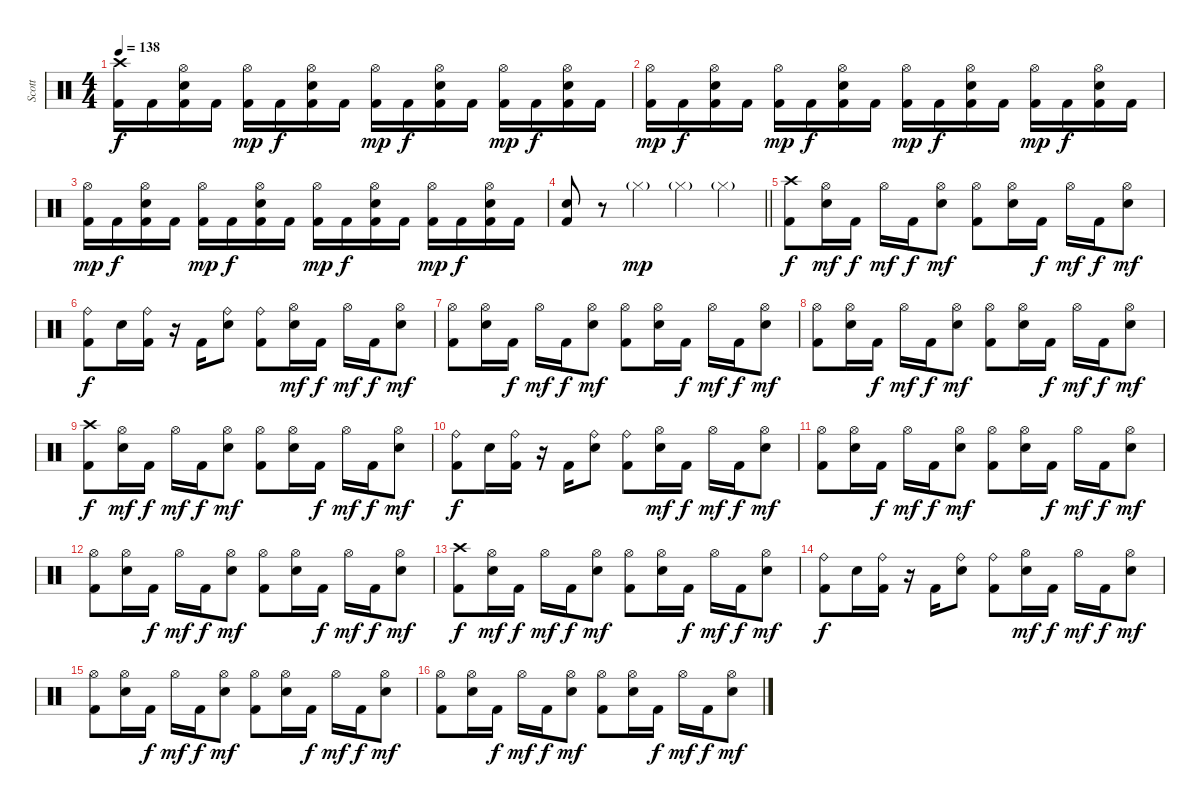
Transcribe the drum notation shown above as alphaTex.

\track ("Scott" "Scott") {instrument percussion}
\staff {score}
\articulation defaults
\ts (4 4)
\tempo 138
\clef neutral
\ks c
("Crash high (hit)" "Kick (hit) 2").16{dy f} "Kick (hit) 2".16 ("Hi-Hat (open)" "Electric Snare (hit)" "Kick (hit) 2").16 "Kick (hit) 2".16 ("Hi-Hat (open)" "Kick (hit) 2").16{dy mp} "Kick (hit) 2".16{dy f} ("Hi-Hat (open)" "Electric Snare (hit)" "Kick (hit) 2").16 "Kick (hit) 2".16 ("Hi-Hat (open)" "Kick (hit) 2").16{dy mp} "Kick (hit) 2".16{dy f} ("Hi-Hat (open)" "Electric Snare (hit)" "Kick (hit) 2").16 "Kick (hit) 2".16 ("Hi-Hat (open)" "Kick (hit) 2").16{dy mp} "Kick (hit) 2".16{dy f} ("Hi-Hat (open)" "Electric Snare (hit)" "Kick (hit) 2").16 "Kick (hit) 2".16 |
("Hi-Hat (open)" "Kick (hit) 2").16{dy mp} "Kick (hit) 2".16{dy f} ("Hi-Hat (open)" "Electric Snare (hit)" "Kick (hit) 2").16 "Kick (hit) 2".16 ("Hi-Hat (open)" "Kick (hit) 2").16{dy mp} "Kick (hit) 2".16{dy f} ("Hi-Hat (open)" "Electric Snare (hit)" "Kick (hit) 2").16 "Kick (hit) 2".16 ("Hi-Hat (open)" "Kick (hit) 2").16{dy mp} "Kick (hit) 2".16{dy f} ("Hi-Hat (open)" "Electric Snare (hit)" "Kick (hit) 2").16 "Kick (hit) 2".16 ("Hi-Hat (open)" "Kick (hit) 2").16{dy mp} "Kick (hit) 2".16{dy f} ("Hi-Hat (open)" "Electric Snare (hit)" "Kick (hit) 2").16 "Kick (hit) 2".16 |
("Hi-Hat (open)" "Kick (hit) 2").16{dy mp} "Kick (hit) 2".16{dy f} ("Hi-Hat (open)" "Electric Snare (hit)" "Kick (hit) 2").16 "Kick (hit) 2".16 ("Hi-Hat (open)" "Kick (hit) 2").16{dy mp} "Kick (hit) 2".16{dy f} ("Hi-Hat (open)" "Electric Snare (hit)" "Kick (hit) 2").16 "Kick (hit) 2".16 ("Hi-Hat (open)" "Kick (hit) 2").16{dy mp} "Kick (hit) 2".16{dy f} ("Hi-Hat (open)" "Electric Snare (hit)" "Kick (hit) 2").16 "Kick (hit) 2".16 ("Hi-Hat (open)" "Kick (hit) 2").16{dy mp} "Kick (hit) 2".16{dy f} ("Hi-Hat (open)" "Electric Snare (hit)" "Kick (hit) 2").16 "Kick (hit) 2".16 |
\barLineRight lightlight
("Electric Snare (hit)" "Kick (hit) 2").8 r.8 "Hi-Hat (closed)"{g}.4{dy mp} "Hi-Hat (closed)"{g}.4 "Hi-Hat (closed)"{g}.4 |
("Crash high (hit)" "Kick (hit) 2").8{dy f} ("Hi-Hat (open)" "Electric Snare (hit)").16{dy mf} "Kick (hit) 2".16{dy f} "Hi-Hat (open)".16{dy mf} "Kick (hit) 2".16{dy f} ("Hi-Hat (open)" "Electric Snare (hit)").8{dy mf} ("Hi-Hat (open)" "Kick (hit) 2").8 ("Hi-Hat (open)" "Electric Snare (hit)").16 "Kick (hit) 2".16{dy f} "Hi-Hat (open)".16{dy mf} "Kick (hit) 2".16{dy f} ("Hi-Hat (open)" "Electric Snare (hit)").8{dy mf} |
("Ride (bell)" "Kick (hit) 2").8{dy f} "Electric Snare (hit)".16 ("Ride (bell)" "Kick (hit) 2").16 r.16 "Kick (hit) 2".16 ("Ride (bell)" "Electric Snare (hit)").8 ("Ride (bell)" "Kick (hit) 2").8 ("Hi-Hat (open)" "Electric Snare (hit)").16{dy mf} "Kick (hit) 2".16{dy f} "Hi-Hat (open)".16{dy mf} "Kick (hit) 2".16{dy f} ("Hi-Hat (open)" "Electric Snare (hit)").8{dy mf} |
("Hi-Hat (open)" "Kick (hit) 2").8 ("Hi-Hat (open)" "Electric Snare (hit)").16 "Kick (hit) 2".16{dy f} "Hi-Hat (open)".16{dy mf} "Kick (hit) 2".16{dy f} ("Hi-Hat (open)" "Electric Snare (hit)").8{dy mf} ("Hi-Hat (open)" "Kick (hit) 2").8 ("Hi-Hat (open)" "Electric Snare (hit)").16 "Kick (hit) 2".16{dy f} "Hi-Hat (open)".16{dy mf} "Kick (hit) 2".16{dy f} ("Hi-Hat (open)" "Electric Snare (hit)").8{dy mf} |
("Hi-Hat (open)" "Kick (hit) 2").8 ("Hi-Hat (open)" "Electric Snare (hit)").16 "Kick (hit) 2".16{dy f} "Hi-Hat (open)".16{dy mf} "Kick (hit) 2".16{dy f} ("Hi-Hat (open)" "Electric Snare (hit)").8{dy mf} ("Hi-Hat (open)" "Kick (hit) 2").8 ("Hi-Hat (open)" "Electric Snare (hit)").16 "Kick (hit) 2".16{dy f} "Hi-Hat (open)".16{dy mf} "Kick (hit) 2".16{dy f} ("Hi-Hat (open)" "Electric Snare (hit)").8{dy mf} |
("Crash high (hit)" "Kick (hit) 2").8{dy f} ("Hi-Hat (open)" "Electric Snare (hit)").16{dy mf} "Kick (hit) 2".16{dy f} "Hi-Hat (open)".16{dy mf} "Kick (hit) 2".16{dy f} ("Hi-Hat (open)" "Electric Snare (hit)").8{dy mf} ("Hi-Hat (open)" "Kick (hit) 2").8 ("Hi-Hat (open)" "Electric Snare (hit)").16 "Kick (hit) 2".16{dy f} "Hi-Hat (open)".16{dy mf} "Kick (hit) 2".16{dy f} ("Hi-Hat (open)" "Electric Snare (hit)").8{dy mf} |
("Ride (bell)" "Kick (hit) 2").8{dy f} "Electric Snare (hit)".16 ("Ride (bell)" "Kick (hit) 2").16 r.16 "Kick (hit) 2".16 ("Ride (bell)" "Electric Snare (hit)").8 ("Ride (bell)" "Kick (hit) 2").8 ("Hi-Hat (open)" "Electric Snare (hit)").16{dy mf} "Kick (hit) 2".16{dy f} "Hi-Hat (open)".16{dy mf} "Kick (hit) 2".16{dy f} ("Hi-Hat (open)" "Electric Snare (hit)").8{dy mf} |
("Hi-Hat (open)" "Kick (hit) 2").8 ("Hi-Hat (open)" "Electric Snare (hit)").16 "Kick (hit) 2".16{dy f} "Hi-Hat (open)".16{dy mf} "Kick (hit) 2".16{dy f} ("Hi-Hat (open)" "Electric Snare (hit)").8{dy mf} ("Hi-Hat (open)" "Kick (hit) 2").8 ("Hi-Hat (open)" "Electric Snare (hit)").16 "Kick (hit) 2".16{dy f} "Hi-Hat (open)".16{dy mf} "Kick (hit) 2".16{dy f} ("Hi-Hat (open)" "Electric Snare (hit)").8{dy mf} |
("Hi-Hat (open)" "Kick (hit) 2").8 ("Hi-Hat (open)" "Electric Snare (hit)").16 "Kick (hit) 2".16{dy f} "Hi-Hat (open)".16{dy mf} "Kick (hit) 2".16{dy f} ("Hi-Hat (open)" "Electric Snare (hit)").8{dy mf} ("Hi-Hat (open)" "Kick (hit) 2").8 ("Hi-Hat (open)" "Electric Snare (hit)").16 "Kick (hit) 2".16{dy f} "Hi-Hat (open)".16{dy mf} "Kick (hit) 2".16{dy f} ("Hi-Hat (open)" "Electric Snare (hit)").8{dy mf} |
("Crash high (hit)" "Kick (hit) 2").8{dy f} ("Hi-Hat (open)" "Electric Snare (hit)").16{dy mf} "Kick (hit) 2".16{dy f} "Hi-Hat (open)".16{dy mf} "Kick (hit) 2".16{dy f} ("Hi-Hat (open)" "Electric Snare (hit)").8{dy mf} ("Hi-Hat (open)" "Kick (hit) 2").8 ("Hi-Hat (open)" "Electric Snare (hit)").16 "Kick (hit) 2".16{dy f} "Hi-Hat (open)".16{dy mf} "Kick (hit) 2".16{dy f} ("Hi-Hat (open)" "Electric Snare (hit)").8{dy mf} |
("Ride (bell)" "Kick (hit) 2").8{dy f} "Electric Snare (hit)".16 ("Ride (bell)" "Kick (hit) 2").16 r.16 "Kick (hit) 2".16 ("Ride (bell)" "Electric Snare (hit)").8 ("Ride (bell)" "Kick (hit) 2").8 ("Hi-Hat (open)" "Electric Snare (hit)").16{dy mf} "Kick (hit) 2".16{dy f} "Hi-Hat (open)".16{dy mf} "Kick (hit) 2".16{dy f} ("Hi-Hat (open)" "Electric Snare (hit)").8{dy mf} |
("Hi-Hat (open)" "Kick (hit) 2").8 ("Hi-Hat (open)" "Electric Snare (hit)").16 "Kick (hit) 2".16{dy f} "Hi-Hat (open)".16{dy mf} "Kick (hit) 2".16{dy f} ("Hi-Hat (open)" "Electric Snare (hit)").8{dy mf} ("Hi-Hat (open)" "Kick (hit) 2").8 ("Hi-Hat (open)" "Electric Snare (hit)").16 "Kick (hit) 2".16{dy f} "Hi-Hat (open)".16{dy mf} "Kick (hit) 2".16{dy f} ("Hi-Hat (open)" "Electric Snare (hit)").8{dy mf} |
("Hi-Hat (open)" "Kick (hit) 2").8 ("Hi-Hat (open)" "Electric Snare (hit)").16 "Kick (hit) 2".16{dy f} "Hi-Hat (open)".16{dy mf} "Kick (hit) 2".16{dy f} ("Hi-Hat (open)" "Electric Snare (hit)").8{dy mf} ("Hi-Hat (open)" "Kick (hit) 2").8 ("Hi-Hat (open)" "Electric Snare (hit)").16 "Kick (hit) 2".16{dy f} "Hi-Hat (open)".16{dy mf} "Kick (hit) 2".16{dy f} ("Hi-Hat (open)" "Electric Snare (hit)").8{dy mf}
